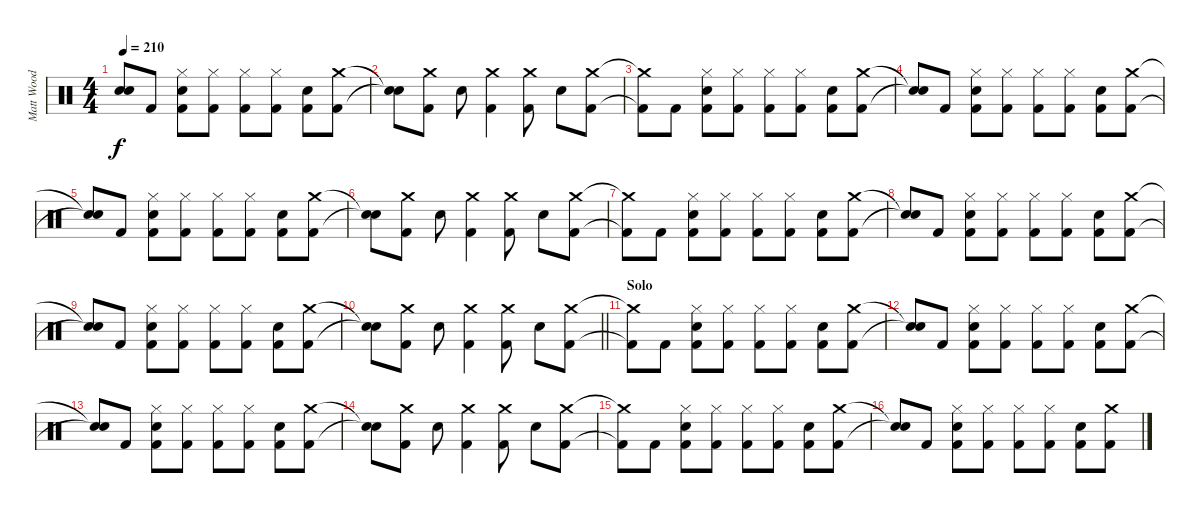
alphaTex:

\track ("Matt Wood" "Matt Wood") {instrument percussion}
\staff {score}
\articulation defaults
\ts (4 4)
\tempo 210
\clef neutral
\ks c
("Snare (hit)"{t} "Snare (hit)"{t}).8{dy f} "Kick (hit) 2".8 ("Hi-Hat (closed)" "Snare (hit) 2" "Kick (hit) 2").8 ("Hi-Hat (closed)" "Kick (hit) 2").8 ("Hi-Hat (closed)" "Kick (hit) 2").8 ("Hi-Hat (closed)" "Kick (hit) 2").8 ("Snare (hit) 2" "Kick (hit) 2").8 ("Crash medium (hit)" "Kick (hit) 2").8 |
("Snare (hit)"{t} "Snare (hit)"{t}).8 ("Crash medium (hit)" "Kick (hit) 2").8 "Snare (hit) 2".8 ("Crash medium (hit)" "Kick (hit) 2").4 ("Crash medium (hit)" "Kick (hit) 2").8 "Snare (hit) 2".8 ("Crash medium (hit)" "Kick (hit) 2").8 |
("Crash medium (hit)"{t} "Kick (hit) 2"{t}).8 "Kick (hit) 2".8 ("Hi-Hat (closed)" "Snare (hit) 2" "Kick (hit) 2").8 ("Hi-Hat (closed)" "Kick (hit) 2").8 ("Hi-Hat (closed)" "Kick (hit) 2").8 ("Hi-Hat (closed)" "Kick (hit) 2").8 ("Snare (hit) 2" "Kick (hit) 2").8 ("Crash medium (hit)" "Kick (hit) 2").8 |
("Snare (hit)"{t} "Snare (hit)"{t}).8 "Kick (hit) 2".8 ("Hi-Hat (closed)" "Snare (hit) 2" "Kick (hit) 2").8 ("Hi-Hat (closed)" "Kick (hit) 2").8 ("Hi-Hat (closed)" "Kick (hit) 2").8 ("Hi-Hat (closed)" "Kick (hit) 2").8 ("Snare (hit) 2" "Kick (hit) 2").8 ("Crash medium (hit)" "Kick (hit) 2").8 |
("Snare (hit)"{t} "Snare (hit)"{t}).8 "Kick (hit) 2".8 ("Hi-Hat (closed)" "Snare (hit) 2" "Kick (hit) 2").8 ("Hi-Hat (closed)" "Kick (hit) 2").8 ("Hi-Hat (closed)" "Kick (hit) 2").8 ("Hi-Hat (closed)" "Kick (hit) 2").8 ("Snare (hit) 2" "Kick (hit) 2").8 ("Crash medium (hit)" "Kick (hit) 2").8 |
("Snare (hit)"{t} "Snare (hit)"{t}).8 ("Crash medium (hit)" "Kick (hit) 2").8 "Snare (hit) 2".8 ("Crash medium (hit)" "Kick (hit) 2").4 ("Crash medium (hit)" "Kick (hit) 2").8 "Snare (hit) 2".8 ("Crash medium (hit)" "Kick (hit) 2").8 |
("Crash medium (hit)"{t} "Kick (hit) 2"{t}).8 "Kick (hit) 2".8 ("Hi-Hat (closed)" "Snare (hit) 2" "Kick (hit) 2").8 ("Hi-Hat (closed)" "Kick (hit) 2").8 ("Hi-Hat (closed)" "Kick (hit) 2").8 ("Hi-Hat (closed)" "Kick (hit) 2").8 ("Snare (hit) 2" "Kick (hit) 2").8 ("Crash medium (hit)" "Kick (hit) 2").8 |
("Snare (hit)"{t} "Snare (hit)"{t}).8 "Kick (hit) 2".8 ("Hi-Hat (closed)" "Snare (hit) 2" "Kick (hit) 2").8 ("Hi-Hat (closed)" "Kick (hit) 2").8 ("Hi-Hat (closed)" "Kick (hit) 2").8 ("Hi-Hat (closed)" "Kick (hit) 2").8 ("Snare (hit) 2" "Kick (hit) 2").8 ("Crash medium (hit)" "Kick (hit) 2").8 |
("Snare (hit)"{t} "Snare (hit)"{t}).8 "Kick (hit) 2".8 ("Hi-Hat (closed)" "Snare (hit) 2" "Kick (hit) 2").8 ("Hi-Hat (closed)" "Kick (hit) 2").8 ("Hi-Hat (closed)" "Kick (hit) 2").8 ("Hi-Hat (closed)" "Kick (hit) 2").8 ("Snare (hit) 2" "Kick (hit) 2").8 ("Crash medium (hit)" "Kick (hit) 2").8 |
\barLineRight lightlight
("Snare (hit)"{t} "Snare (hit)"{t}).8 ("Crash medium (hit)" "Kick (hit) 2").8 "Snare (hit) 2".8 ("Crash medium (hit)" "Kick (hit) 2").4 ("Crash medium (hit)" "Kick (hit) 2").8 "Snare (hit) 2".8 ("Crash medium (hit)" "Kick (hit) 2").8 |
\section ("" "Solo")
("Crash medium (hit)"{t} "Kick (hit) 2"{t}).8 "Kick (hit) 2".8 ("Hi-Hat (closed)" "Snare (hit) 2" "Kick (hit) 2").8 ("Hi-Hat (closed)" "Kick (hit) 2").8 ("Hi-Hat (closed)" "Kick (hit) 2").8 ("Hi-Hat (closed)" "Kick (hit) 2").8 ("Snare (hit) 2" "Kick (hit) 2").8 ("Crash medium (hit)" "Kick (hit) 2").8 |
("Snare (hit)"{t} "Snare (hit)"{t}).8 "Kick (hit) 2".8 ("Hi-Hat (closed)" "Snare (hit) 2" "Kick (hit) 2").8 ("Hi-Hat (closed)" "Kick (hit) 2").8 ("Hi-Hat (closed)" "Kick (hit) 2").8 ("Hi-Hat (closed)" "Kick (hit) 2").8 ("Snare (hit) 2" "Kick (hit) 2").8 ("Crash medium (hit)" "Kick (hit) 2").8 |
("Snare (hit)"{t} "Snare (hit)"{t}).8 "Kick (hit) 2".8 ("Hi-Hat (closed)" "Snare (hit) 2" "Kick (hit) 2").8 ("Hi-Hat (closed)" "Kick (hit) 2").8 ("Hi-Hat (closed)" "Kick (hit) 2").8 ("Hi-Hat (closed)" "Kick (hit) 2").8 ("Snare (hit) 2" "Kick (hit) 2").8 ("Crash medium (hit)" "Kick (hit) 2").8 |
("Snare (hit)"{t} "Snare (hit)"{t}).8 ("Crash medium (hit)" "Kick (hit) 2").8 "Snare (hit) 2".8 ("Crash medium (hit)" "Kick (hit) 2").4 ("Crash medium (hit)" "Kick (hit) 2").8 "Snare (hit) 2".8 ("Crash medium (hit)" "Kick (hit) 2").8 |
("Crash medium (hit)"{t} "Kick (hit) 2"{t}).8 "Kick (hit) 2".8 ("Hi-Hat (closed)" "Snare (hit) 2" "Kick (hit) 2").8 ("Hi-Hat (closed)" "Kick (hit) 2").8 ("Hi-Hat (closed)" "Kick (hit) 2").8 ("Hi-Hat (closed)" "Kick (hit) 2").8 ("Snare (hit) 2" "Kick (hit) 2").8 ("Crash medium (hit)" "Kick (hit) 2").8 |
("Snare (hit)"{t} "Snare (hit)"{t}).8 "Kick (hit) 2".8 ("Hi-Hat (closed)" "Snare (hit) 2" "Kick (hit) 2").8 ("Hi-Hat (closed)" "Kick (hit) 2").8 ("Hi-Hat (closed)" "Kick (hit) 2").8 ("Hi-Hat (closed)" "Kick (hit) 2").8 ("Snare (hit) 2" "Kick (hit) 2").8 ("Crash medium (hit)" "Kick (hit) 2").8
